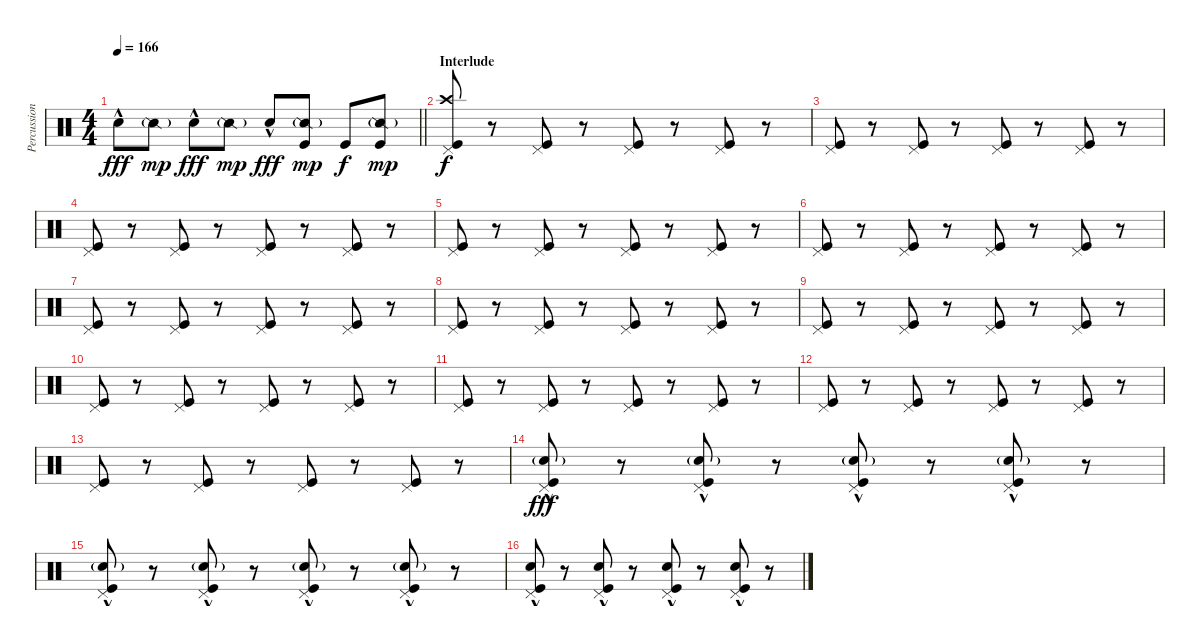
\track ("Percussion" "Percussion") {instrument percussion}
\staff {score}
\articulation defaults
\ts (4 4)
\tempo 166
\clef neutral
\barLineRight lightlight
\ks c "Snare (hit) 2"{hac}.8{dy fff} "Snare (side stick) 2"{g}.8{dy mp} "Snare (hit) 2"{hac}.8{dy fff} "Snare (side stick) 2"{g}.8{dy mp} "Snare (hit) 2"{hac}.8{dy fff}
("Snare (side stick) 2"{g} "Kick (hit)").8{dy mp} "Kick (hit)".8{dy f} ("Snare (side stick) 2"{g} "Kick (hit)").8{dy mp} |
\section ("" "Interlude")
("Crash high (hit)" "Pedal Hi-Hat (hit)" "Kick (hit)").8{dy f} r.8 ("Pedal Hi-Hat (hit)" "Kick (hit)").8 r.8 ("Pedal Hi-Hat (hit)" "Kick (hit)").8 r.8 ("Pedal Hi-Hat (hit)" "Kick (hit)").8 r.8 |
("Pedal Hi-Hat (hit)" "Kick (hit)").8 r.8 ("Pedal Hi-Hat (hit)" "Kick (hit)").8 r.8 ("Pedal Hi-Hat (hit)" "Kick (hit)").8 r.8 ("Pedal Hi-Hat (hit)" "Kick (hit)").8 r.8 |
("Pedal Hi-Hat (hit)" "Kick (hit)").8 r.8 ("Pedal Hi-Hat (hit)" "Kick (hit)").8 r.8 ("Pedal Hi-Hat (hit)" "Kick (hit)").8 r.8 ("Pedal Hi-Hat (hit)" "Kick (hit)").8 r.8 |
("Pedal Hi-Hat (hit)" "Kick (hit)").8 r.8 ("Pedal Hi-Hat (hit)" "Kick (hit)").8 r.8 ("Pedal Hi-Hat (hit)" "Kick (hit)").8 r.8 ("Pedal Hi-Hat (hit)" "Kick (hit)").8 r.8 |
("Pedal Hi-Hat (hit)" "Kick (hit)").8 r.8 ("Pedal Hi-Hat (hit)" "Kick (hit)").8 r.8 ("Pedal Hi-Hat (hit)" "Kick (hit)").8 r.8 ("Pedal Hi-Hat (hit)" "Kick (hit)").8 r.8 |
("Pedal Hi-Hat (hit)" "Kick (hit)").8 r.8 ("Pedal Hi-Hat (hit)" "Kick (hit)").8 r.8 ("Pedal Hi-Hat (hit)" "Kick (hit)").8 r.8 ("Pedal Hi-Hat (hit)" "Kick (hit)").8 r.8 |
("Pedal Hi-Hat (hit)" "Kick (hit)").8 r.8 ("Pedal Hi-Hat (hit)" "Kick (hit)").8 r.8 ("Pedal Hi-Hat (hit)" "Kick (hit)").8 r.8 ("Pedal Hi-Hat (hit)" "Kick (hit)").8 r.8 |
("Pedal Hi-Hat (hit)" "Kick (hit)").8 r.8 ("Pedal Hi-Hat (hit)" "Kick (hit)").8 r.8 ("Pedal Hi-Hat (hit)" "Kick (hit)").8 r.8 ("Pedal Hi-Hat (hit)" "Kick (hit)").8 r.8 |
("Pedal Hi-Hat (hit)" "Kick (hit)").8 r.8 ("Pedal Hi-Hat (hit)" "Kick (hit)").8 r.8 ("Pedal Hi-Hat (hit)" "Kick (hit)").8 r.8 ("Pedal Hi-Hat (hit)" "Kick (hit)").8 r.8 |
("Pedal Hi-Hat (hit)" "Kick (hit)").8 r.8 ("Pedal Hi-Hat (hit)" "Kick (hit)").8 r.8 ("Pedal Hi-Hat (hit)" "Kick (hit)").8 r.8 ("Pedal Hi-Hat (hit)" "Kick (hit)").8 r.8 |
("Pedal Hi-Hat (hit)" "Kick (hit)").8 r.8 ("Pedal Hi-Hat (hit)" "Kick (hit)").8 r.8 ("Pedal Hi-Hat (hit)" "Kick (hit)").8 r.8 ("Pedal Hi-Hat (hit)" "Kick (hit)").8 r.8 |
("Pedal Hi-Hat (hit)" "Kick (hit)").8 r.8 ("Pedal Hi-Hat (hit)" "Kick (hit)").8 r.8 ("Pedal Hi-Hat (hit)" "Kick (hit)").8 r.8 ("Pedal Hi-Hat (hit)" "Kick (hit)").8 r.8 |
("Pedal Hi-Hat (hit)" "Snare (hit) 2"{g} "Kick (hit)"{hac}).8{dy fff} r.8 ("Pedal Hi-Hat (hit)" "Snare (hit) 2"{g} "Kick (hit)"{hac}).8 r.8 ("Pedal Hi-Hat (hit)" "Snare (hit) 2"{g} "Kick (hit)"{hac}).8 r.8 ("Pedal Hi-Hat (hit)" "Snare (hit) 2"{g} "Kick (hit)"{hac}).8 r.8 |
("Pedal Hi-Hat (hit)" "Snare (hit) 2"{g} "Kick (hit)"{hac}).8 r.8 ("Pedal Hi-Hat (hit)" "Snare (hit) 2"{g} "Kick (hit)"{hac}).8 r.8 ("Pedal Hi-Hat (hit)" "Snare (hit) 2"{g} "Kick (hit)"{hac}).8 r.8 ("Pedal Hi-Hat (hit)" "Snare (hit) 2"{g} "Kick (hit)"{hac}).8 r.8 |
("Pedal Hi-Hat (hit)" "Snare (hit) 2" "Kick (hit)"{hac}).8 r.8 ("Pedal Hi-Hat (hit)" "Snare (hit) 2" "Kick (hit)"{hac}).8 r.8 ("Pedal Hi-Hat (hit)" "Snare (hit) 2" "Kick (hit)"{hac}).8 r.8 ("Pedal Hi-Hat (hit)" "Snare (hit) 2" "Kick (hit)"{hac}).8 r.8
